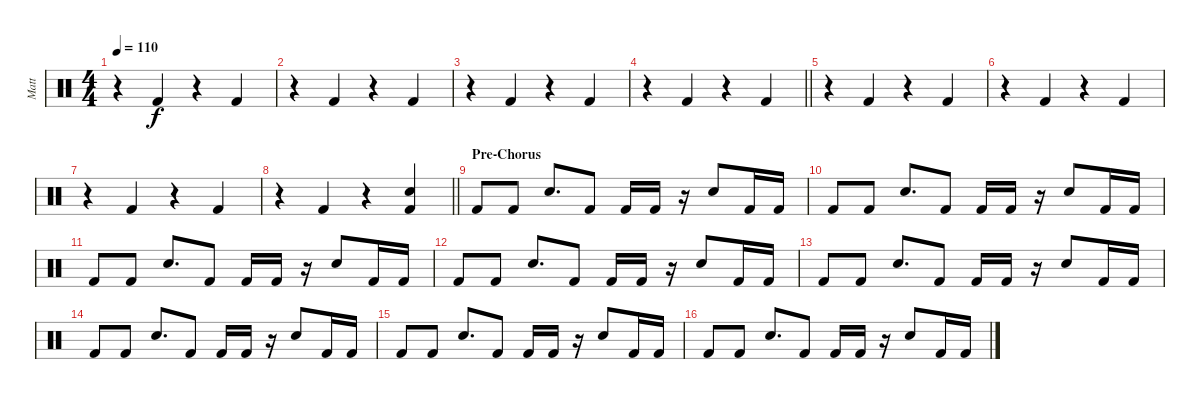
\track ("Matt" "Matt") {instrument percussion}
\staff {score}
\articulation defaults
\ts (4 4)
\tempo 110
\clef neutral
\ks c
r.4{dy f} "Kick (hit) 2".4 r.4 "Kick (hit) 2".4 |
r.4 "Kick (hit) 2".4 r.4 "Kick (hit) 2".4 |
r.4 "Kick (hit) 2".4 r.4 "Kick (hit) 2".4 |
\barLineRight lightlight
r.4 "Kick (hit) 2".4 r.4 "Kick (hit) 2".4 |
r.4 "Kick (hit) 2".4 r.4 "Kick (hit) 2".4 |
r.4 "Kick (hit) 2".4 r.4 "Kick (hit) 2".4 |
r.4 "Kick (hit) 2".4 r.4 "Kick (hit) 2".4 |
\barLineRight lightlight
r.4 "Kick (hit) 2".4 r.4 ("Snare (hit) 2" "Kick (hit) 2").4 |
\section ("" "Pre-Chorus")
"Kick (hit) 2".8 "Kick (hit) 2".8 "Snare (hit) 2".8{d} "Kick (hit) 2".8 "Kick (hit) 2".16 "Kick (hit) 2".16 r.16 "Snare (hit) 2".8 "Kick (hit) 2".16 "Kick (hit) 2".16 |
"Kick (hit) 2".8 "Kick (hit) 2".8 "Snare (hit) 2".8{d} "Kick (hit) 2".8 "Kick (hit) 2".16 "Kick (hit) 2".16 r.16 "Snare (hit) 2".8 "Kick (hit) 2".16 "Kick (hit) 2".16 |
"Kick (hit) 2".8 "Kick (hit) 2".8 "Snare (hit) 2".8{d} "Kick (hit) 2".8 "Kick (hit) 2".16 "Kick (hit) 2".16 r.16 "Snare (hit) 2".8 "Kick (hit) 2".16 "Kick (hit) 2".16 |
"Kick (hit) 2".8 "Kick (hit) 2".8 "Snare (hit) 2".8{d} "Kick (hit) 2".8 "Kick (hit) 2".16 "Kick (hit) 2".16 r.16 "Snare (hit) 2".8 "Kick (hit) 2".16 "Kick (hit) 2".16 |
"Kick (hit) 2".8 "Kick (hit) 2".8 "Snare (hit) 2".8{d} "Kick (hit) 2".8 "Kick (hit) 2".16 "Kick (hit) 2".16 r.16 "Snare (hit) 2".8 "Kick (hit) 2".16 "Kick (hit) 2".16 |
"Kick (hit) 2".8 "Kick (hit) 2".8 "Snare (hit) 2".8{d} "Kick (hit) 2".8 "Kick (hit) 2".16 "Kick (hit) 2".16 r.16 "Snare (hit) 2".8 "Kick (hit) 2".16 "Kick (hit) 2".16 |
"Kick (hit) 2".8 "Kick (hit) 2".8 "Snare (hit) 2".8{d} "Kick (hit) 2".8 "Kick (hit) 2".16 "Kick (hit) 2".16 r.16 "Snare (hit) 2".8 "Kick (hit) 2".16 "Kick (hit) 2".16 |
"Kick (hit) 2".8 "Kick (hit) 2".8 "Snare (hit) 2".8{d} "Kick (hit) 2".8 "Kick (hit) 2".16 "Kick (hit) 2".16 r.16 "Snare (hit) 2".8 "Kick (hit) 2".16 "Kick (hit) 2".16
